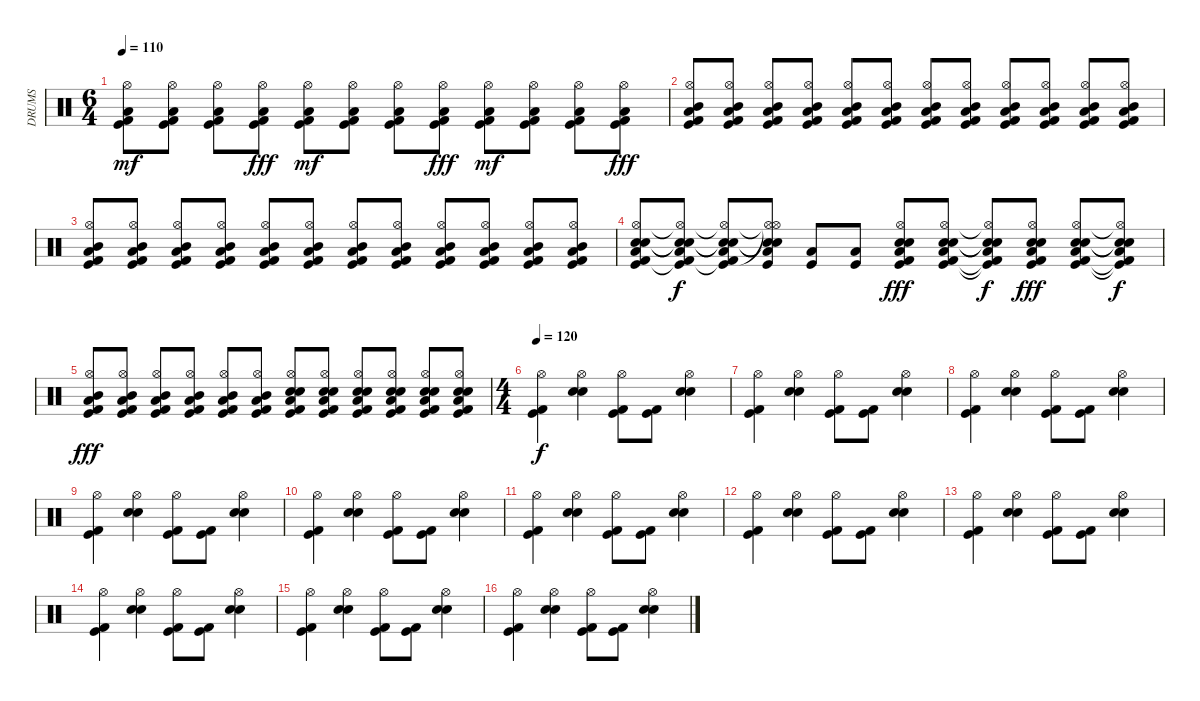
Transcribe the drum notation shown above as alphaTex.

\track ("DRUMS" "DRUMS") {instrument percussion}
\staff {score}
\articulation defaults
\ts (6 4)
\tempo 110
\clef neutral
\ks c
("Kick (hit)" "Kick (hit) 2" "Low Tom (hit)" "Hi-Hat (open)").8{dy mf} ("Kick (hit)" "Kick (hit) 2" "Low Tom (hit)" "Hi-Hat (open)").8 ("Kick (hit)" "Kick (hit) 2" "Low Tom (hit)" "Hi-Hat (open)").8 ("Kick (hit)" "Kick (hit) 2" "Low Tom (hit)" "Hi-Hat (open)").8{dy fff} ("Kick (hit)" "Kick (hit) 2" "Low Tom (hit)" "Hi-Hat (open)").8{dy mf} ("Kick (hit)" "Kick (hit) 2" "Low Tom (hit)" "Hi-Hat (open)").8 ("Kick (hit)" "Kick (hit) 2" "Low Tom (hit)" "Hi-Hat (open)").8 ("Kick (hit)" "Kick (hit) 2" "Low Tom (hit)" "Hi-Hat (open)").8{dy fff} ("Kick (hit)" "Kick (hit) 2" "Low Tom (hit)" "Hi-Hat (open)").8{dy mf} ("Kick (hit)" "Kick (hit) 2" "Low Tom (hit)" "Hi-Hat (open)").8 ("Kick (hit)" "Kick (hit) 2" "Low Tom (hit)" "Hi-Hat (open)").8 ("Kick (hit)" "Kick (hit) 2" "Low Tom (hit)" "Hi-Hat (open)").8{dy fff} |
("Kick (hit)" "Kick (hit) 2" "Low Tom (hit)" "Hi-Hat (open)" "Mid Tom (hit)").8 ("Kick (hit)" "Kick (hit) 2" "Low Tom (hit)" "Hi-Hat (open)" "Mid Tom (hit)").8 ("Kick (hit)" "Kick (hit) 2" "Low Tom (hit)" "Hi-Hat (open)" "Mid Tom (hit)").8 ("Kick (hit)" "Kick (hit) 2" "Low Tom (hit)" "Hi-Hat (open)" "Mid Tom (hit)").8 ("Kick (hit)" "Kick (hit) 2" "Low Tom (hit)" "Hi-Hat (open)" "Mid Tom (hit)").8 ("Kick (hit)" "Kick (hit) 2" "Low Tom (hit)" "Hi-Hat (open)" "Mid Tom (hit)").8 ("Kick (hit)" "Kick (hit) 2" "Low Tom (hit)" "Hi-Hat (open)" "Mid Tom (hit)").8 ("Kick (hit)" "Kick (hit) 2" "Low Tom (hit)" "Hi-Hat (open)" "Mid Tom (hit)").8 ("Kick (hit)" "Kick (hit) 2" "Low Tom (hit)" "Hi-Hat (open)" "Mid Tom (hit)").8 ("Kick (hit)" "Kick (hit) 2" "Low Tom (hit)" "Hi-Hat (open)" "Mid Tom (hit)").8 ("Kick (hit)" "Kick (hit) 2" "Low Tom (hit)" "Hi-Hat (open)" "Mid Tom (hit)").8 ("Kick (hit)" "Kick (hit) 2" "Low Tom (hit)" "Hi-Hat (open)" "Mid Tom (hit)").8 |
("Kick (hit)" "Kick (hit) 2" "Low Tom (hit)" "Hi-Hat (open)" "Mid Tom (hit)").8 ("Kick (hit)" "Kick (hit) 2" "Low Tom (hit)" "Hi-Hat (open)" "Mid Tom (hit)").8 ("Kick (hit)" "Kick (hit) 2" "Low Tom (hit)" "Hi-Hat (open)" "Mid Tom (hit)").8 ("Kick (hit)" "Kick (hit) 2" "Low Tom (hit)" "Hi-Hat (open)" "Mid Tom (hit)").8 ("Kick (hit)" "Kick (hit) 2" "Low Tom (hit)" "Hi-Hat (open)" "Mid Tom (hit)").8 ("Kick (hit)" "Kick (hit) 2" "Low Tom (hit)" "Hi-Hat (open)" "Mid Tom (hit)").8 ("Kick (hit)" "Kick (hit) 2" "Low Tom (hit)" "Hi-Hat (open)" "Mid Tom (hit)").8 ("Kick (hit)" "Kick (hit) 2" "Low Tom (hit)" "Hi-Hat (open)" "Mid Tom (hit)").8 ("Kick (hit)" "Kick (hit) 2" "Low Tom (hit)" "Hi-Hat (open)" "Mid Tom (hit)").8 ("Kick (hit)" "Kick (hit) 2" "Low Tom (hit)" "Hi-Hat (open)" "Mid Tom (hit)").8 ("Kick (hit)" "Kick (hit) 2" "Low Tom (hit)" "Hi-Hat (open)" "Mid Tom (hit)").8 ("Kick (hit)" "Kick (hit) 2" "Low Tom (hit)" "Hi-Hat (open)" "Mid Tom (hit)").8 |
("Kick (hit)" "Kick (hit) 2" "Electric Snare (hit)" "Snare (hit) 2" "Hi-Hat (open)" "Low Tom (hit)").8 ("Kick (hit)" "Kick (hit) 2"{t} "Electric Snare (hit)"{t} "Snare (hit) 2"{t} "Hi-Hat (open)"{t} "Low Tom (hit)").8{dy f} ("Kick (hit)" "Kick (hit) 2"{t} "Electric Snare (hit)"{t} "Snare (hit) 2"{t} "Hi-Hat (open)"{t} "Low Tom (hit)").8 ("Kick (hit)" "Hi-Hat (open)"{t} "Electric Snare (hit)"{t} "Snare (hit) 2"{t} "Hi-Hat (open)"{t} "Low Tom (hit)").8 ("Kick (hit)" "Low Tom (hit)").8 ("Kick (hit)" "Low Tom (hit)").8 ("Kick (hit)" "Kick (hit) 2" "Electric Snare (hit)" "Snare (hit) 2" "Hi-Hat (open)" "Low Tom (hit)").8{dy fff} ("Kick (hit)" "Kick (hit) 2" "Electric Snare (hit)" "Snare (hit) 2" "Hi-Hat (open)" "Low Tom (hit)").8 ("Kick (hit)"{t} "Kick (hit) 2"{t} "Electric Snare (hit)"{t} "Snare (hit) 2"{t} "Hi-Hat (open)"{t} "Low Tom (hit)").8{dy f} ("Kick (hit)" "Kick (hit) 2" "Electric Snare (hit)" "Snare (hit) 2" "Hi-Hat (open)" "Low Tom (hit)").8{dy fff} ("Kick (hit)" "Kick (hit) 2" "Electric Snare (hit)" "Snare (hit) 2" "Hi-Hat (open)" "Low Tom (hit)").8 ("Kick (hit)"{t} "Kick (hit) 2"{t} "Electric Snare (hit)"{t} "Snare (hit) 2"{t} "Hi-Hat (open)"{t} "Low Tom (hit)").8{dy f} |
("Kick (hit)" "Kick (hit) 2" "Low Tom (hit)" "Hi-Hat (open)" "Mid Tom (hit)").8{dy fff} ("Kick (hit)" "Kick (hit) 2" "Low Tom (hit)" "Hi-Hat (open)" "Mid Tom (hit)").8 ("Kick (hit)" "Kick (hit) 2" "Low Tom (hit)" "Hi-Hat (open)" "Mid Tom (hit)").8 ("Kick (hit)" "Kick (hit) 2" "Low Tom (hit)" "Hi-Hat (open)" "Mid Tom (hit)").8 ("Kick (hit)" "Kick (hit) 2" "Low Tom (hit)" "Hi-Hat (open)" "Mid Tom (hit)").8 ("Kick (hit)" "Kick (hit) 2" "Low Tom (hit)" "Hi-Hat (open)" "Mid Tom (hit)").8 ("Kick (hit)" "Kick (hit) 2" "Electric Snare (hit)" "Low Tom (hit)" "Hi-Hat (open)" "Snare (hit) 2").8 ("Kick (hit)" "Kick (hit) 2" "Electric Snare (hit)" "Low Tom (hit)" "Hi-Hat (open)" "Snare (hit) 2").8 ("Kick (hit)" "Kick (hit) 2" "Electric Snare (hit)" "Low Tom (hit)" "Hi-Hat (open)" "Snare (hit) 2").8 ("Kick (hit)" "Kick (hit) 2" "Electric Snare (hit)" "Low Tom (hit)" "Hi-Hat (open)" "Snare (hit) 2").8 ("Kick (hit)" "Kick (hit) 2" "Electric Snare (hit)" "Low Tom (hit)" "Hi-Hat (open)" "Snare (hit) 2").8 ("Kick (hit)" "Kick (hit) 2" "Electric Snare (hit)" "Low Tom (hit)" "Hi-Hat (open)" "Snare (hit) 2").8 |
\ts (4 4)
\tempo 120
("Kick (hit)" "Kick (hit) 2" "Hi-Hat (open)").4{dy f} ("Snare (hit) 2" "Electric Snare (hit)" "Hi-Hat (open)").4 ("Kick (hit)" "Kick (hit) 2" "Hi-Hat (open)").8 ("Kick (hit)" "Kick (hit) 2").8 ("Snare (hit) 2" "Electric Snare (hit)" "Hi-Hat (open)").4 |
("Kick (hit)" "Kick (hit) 2" "Hi-Hat (open)").4 ("Snare (hit) 2" "Electric Snare (hit)" "Hi-Hat (open)").4 ("Kick (hit)" "Kick (hit) 2" "Hi-Hat (open)").8 ("Kick (hit)" "Kick (hit) 2").8 ("Snare (hit) 2" "Electric Snare (hit)" "Hi-Hat (open)").4 |
("Kick (hit)" "Kick (hit) 2" "Hi-Hat (open)").4 ("Snare (hit) 2" "Electric Snare (hit)" "Hi-Hat (open)").4 ("Kick (hit)" "Kick (hit) 2" "Hi-Hat (open)").8 ("Kick (hit)" "Kick (hit) 2").8 ("Snare (hit) 2" "Electric Snare (hit)" "Hi-Hat (open)").4 |
("Kick (hit)" "Kick (hit) 2" "Hi-Hat (open)").4 ("Snare (hit) 2" "Electric Snare (hit)" "Hi-Hat (open)").4 ("Kick (hit)" "Kick (hit) 2" "Hi-Hat (open)").8 ("Kick (hit)" "Kick (hit) 2").8 ("Snare (hit) 2" "Electric Snare (hit)" "Hi-Hat (open)").4 |
("Kick (hit)" "Kick (hit) 2" "Hi-Hat (open)").4 ("Snare (hit) 2" "Electric Snare (hit)" "Hi-Hat (open)").4 ("Kick (hit)" "Kick (hit) 2" "Hi-Hat (open)").8 ("Kick (hit)" "Kick (hit) 2").8 ("Snare (hit) 2" "Electric Snare (hit)" "Hi-Hat (open)").4 |
("Kick (hit)" "Kick (hit) 2" "Hi-Hat (open)").4 ("Snare (hit) 2" "Electric Snare (hit)" "Hi-Hat (open)").4 ("Kick (hit)" "Kick (hit) 2" "Hi-Hat (open)").8 ("Kick (hit)" "Kick (hit) 2").8 ("Snare (hit) 2" "Electric Snare (hit)" "Hi-Hat (open)").4 |
("Kick (hit)" "Kick (hit) 2" "Hi-Hat (open)").4 ("Snare (hit) 2" "Electric Snare (hit)" "Hi-Hat (open)").4 ("Kick (hit)" "Kick (hit) 2" "Hi-Hat (open)").8 ("Kick (hit)" "Kick (hit) 2").8 ("Snare (hit) 2" "Electric Snare (hit)" "Hi-Hat (open)").4 |
("Kick (hit)" "Kick (hit) 2" "Hi-Hat (open)").4 ("Snare (hit) 2" "Electric Snare (hit)" "Hi-Hat (open)").4 ("Kick (hit)" "Kick (hit) 2" "Hi-Hat (open)").8 ("Kick (hit)" "Kick (hit) 2").8 ("Snare (hit) 2" "Electric Snare (hit)" "Hi-Hat (open)").4 |
("Kick (hit)" "Kick (hit) 2" "Hi-Hat (open)").4 ("Snare (hit) 2" "Electric Snare (hit)" "Hi-Hat (open)").4 ("Kick (hit)" "Kick (hit) 2" "Hi-Hat (open)").8 ("Kick (hit)" "Kick (hit) 2").8 ("Snare (hit) 2" "Electric Snare (hit)" "Hi-Hat (open)").4 |
("Kick (hit)" "Kick (hit) 2" "Hi-Hat (open)").4 ("Snare (hit) 2" "Electric Snare (hit)" "Hi-Hat (open)").4 ("Kick (hit)" "Kick (hit) 2" "Hi-Hat (open)").8 ("Kick (hit)" "Kick (hit) 2").8 ("Snare (hit) 2" "Electric Snare (hit)" "Hi-Hat (open)").4 |
("Kick (hit)" "Kick (hit) 2" "Hi-Hat (open)").4 ("Snare (hit) 2" "Electric Snare (hit)" "Hi-Hat (open)").4 ("Kick (hit)" "Kick (hit) 2" "Hi-Hat (open)").8 ("Kick (hit)" "Kick (hit) 2").8 ("Snare (hit) 2" "Electric Snare (hit)" "Hi-Hat (open)").4
